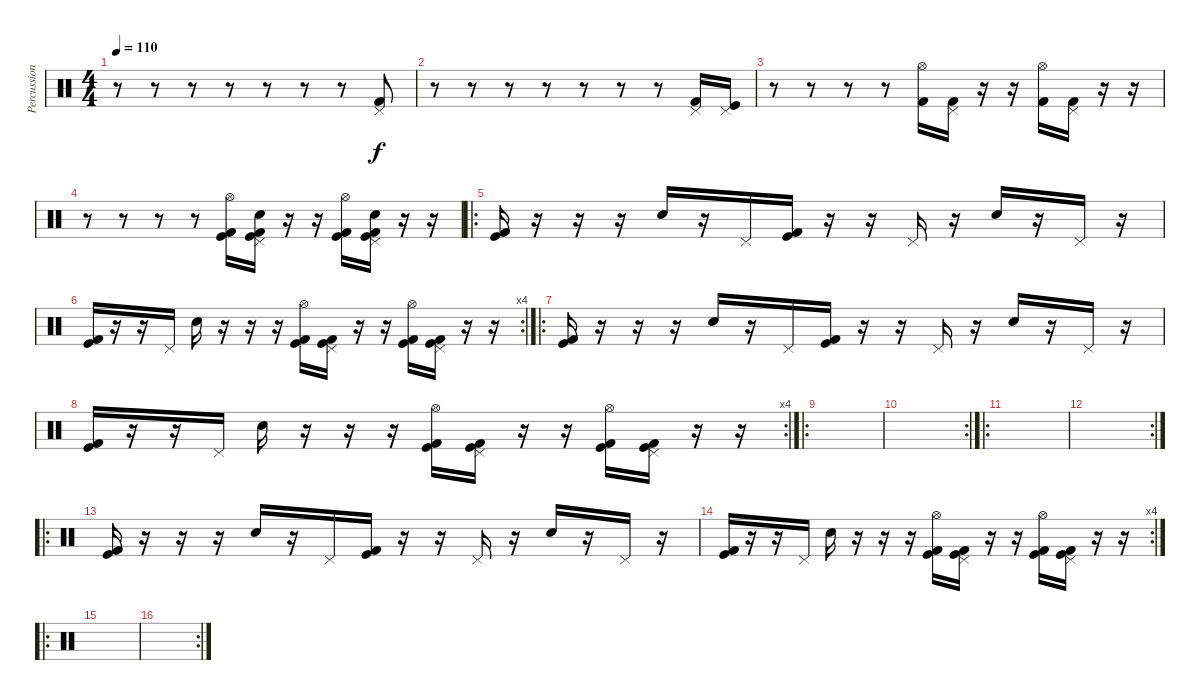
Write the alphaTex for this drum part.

\track ("Percussions" "Percussion") {instrument percussion}
\staff {score}
\articulation defaults
\ts (4 4)
\tempo 110
\clef neutral
\ks c
r.8{dy f} r.8 r.8 r.8 r.8 r.8 r.8 ("Pedal Hi-Hat (hit)" "Kick (hit) 2").8 |
r.8 r.8 r.8 r.8 r.8 r.8 r.8 ("Pedal Hi-Hat (hit)" "Kick (hit) 2").16 ("Pedal Hi-Hat (hit)" "Kick (hit)").16 |
r.8 r.8 r.8 r.8 ("Hi-Hat (open)" "Kick (hit) 2").16 ("Pedal Hi-Hat (hit)" "Kick (hit) 2").16 r.16 r.16 ("Hi-Hat (open)" "Kick (hit) 2").16 ("Pedal Hi-Hat (hit)" "Kick (hit) 2").16 r.16 r.16 |
r.8 r.8 r.8 r.8 ("Hi-Hat (open)" "Kick (hit)" "Kick (hit) 2").16 ("Pedal Hi-Hat (hit)" "Electric Snare (hit)" "Kick (hit) 2" "Kick (hit)").16 r.16 r.16 ("Hi-Hat (open)" "Kick (hit)" "Kick (hit) 2").16 ("Pedal Hi-Hat (hit)" "Electric Snare (hit)" "Kick (hit)" "Kick (hit) 2").16 r.16 r.16 |
\ro
("Kick (hit) 2" "Kick (hit)").16 r.16 r.16 r.16 "Electric Snare (hit)".16 r.16 "Pedal Hi-Hat (hit)".16 ("Kick (hit)" "Kick (hit) 2").16 r.16 r.16 "Pedal Hi-Hat (hit)".16 r.16 "Electric Snare (hit)".16 r.16 "Pedal Hi-Hat (hit)".16 r.16 |
\rc 4
("Kick (hit) 2" "Kick (hit)").16 r.16 r.16 "Pedal Hi-Hat (hit)".16 "Electric Snare (hit)".16 r.16 r.16 r.16 ("Hi-Hat (open)" "Kick (hit) 2" "Kick (hit)").16 ("Pedal Hi-Hat (hit)" "Kick (hit)" "Kick (hit) 2").16 r.16 r.16 ("Hi-Hat (open)" "Kick (hit) 2" "Kick (hit)").16 ("Pedal Hi-Hat (hit)" "Kick (hit)" "Kick (hit) 2").16 r.16 r.16 |
\ro
("Kick (hit) 2" "Kick (hit)").16 r.16 r.16 r.16 "Electric Snare (hit)".16 r.16 "Pedal Hi-Hat (hit)".16 ("Kick (hit)" "Kick (hit) 2").16 r.16 r.16 "Pedal Hi-Hat (hit)".16 r.16 "Electric Snare (hit)".16 r.16 "Pedal Hi-Hat (hit)".16 r.16 |
\rc 4
("Kick (hit) 2" "Kick (hit)").16 r.16 r.16 "Pedal Hi-Hat (hit)".16 "Electric Snare (hit)".16 r.16 r.16 r.16 ("Hi-Hat (open)" "Kick (hit) 2" "Kick (hit)").16 ("Pedal Hi-Hat (hit)" "Kick (hit)" "Kick (hit) 2").16 r.16 r.16 ("Hi-Hat (open)" "Kick (hit) 2" "Kick (hit)").16 ("Pedal Hi-Hat (hit)" "Kick (hit)" "Kick (hit) 2").16 r.16 r.16 |
\ro
|
\rc 2
|
\ro
|
\rc 2
|
\ro
("Kick (hit) 2" "Kick (hit)").16 r.16 r.16 r.16 "Electric Snare (hit)".16 r.16 "Pedal Hi-Hat (hit)".16 ("Kick (hit)" "Kick (hit) 2").16 r.16 r.16 "Pedal Hi-Hat (hit)".16 r.16 "Electric Snare (hit)".16 r.16 "Pedal Hi-Hat (hit)".16 r.16 |
\rc 4
("Kick (hit) 2" "Kick (hit)").16 r.16 r.16 "Pedal Hi-Hat (hit)".16 "Electric Snare (hit)".16 r.16 r.16 r.16 ("Hi-Hat (open)" "Kick (hit) 2" "Kick (hit)").16 ("Pedal Hi-Hat (hit)" "Kick (hit)" "Kick (hit) 2").16 r.16 r.16 ("Hi-Hat (open)" "Kick (hit) 2" "Kick (hit)").16 ("Pedal Hi-Hat (hit)" "Kick (hit)" "Kick (hit) 2").16 r.16 r.16 |
\ro
|
\rc 2
